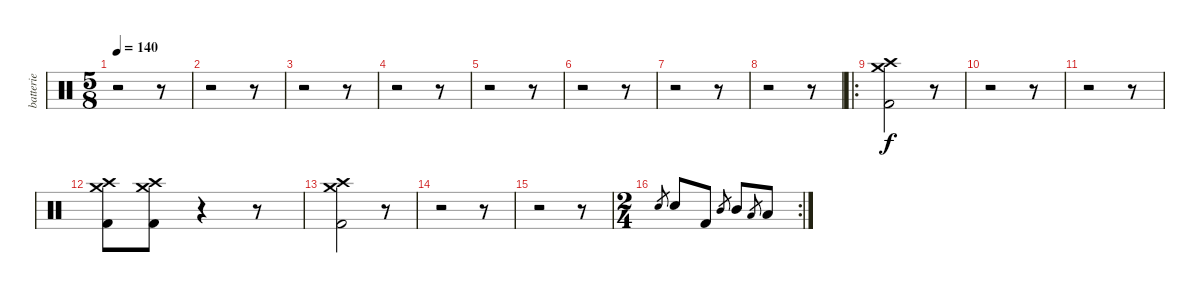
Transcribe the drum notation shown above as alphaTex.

\track ("batterie" "batterie") {instrument percussion}
\staff {score}
\articulation defaults
\ts (5 8)
\tempo 140
\clef neutral
\ks c
r.2{dy f} r.8 |
r.2 r.8 |
r.2 r.8 |
r.2 r.8 |
r.2 r.8 |
r.2 r.8 |
r.2 r.8 |
r.2 r.8 |
\ro
("Crash high (hit)" "Crash medium (hit)" "Kick (hit) 2").2 r.8 |
r.2 r.8 |
r.2 r.8 |
("Crash high (hit)" "Crash medium (hit)" "Kick (hit) 2").8 ("Crash high (hit)" "Crash medium (hit)" "Kick (hit) 2").8{volume 14} r.4{volume 0} r.8 |
("Crash high (hit)" "Crash medium (hit)" "Kick (hit) 2").2{volume 14} r.8 |
r.2 r.8 |
r.2 r.8 |
\rc 2
\ts (2 4)
"Electric Snare (hit)".8{gr} "Electric Snare (hit)".8 "Kick (hit) 2".8 "Mid Tom (hit)".8{gr} "Mid Tom (hit)".8 "Low Tom (hit)".8{gr} "Low Tom (hit)".8
